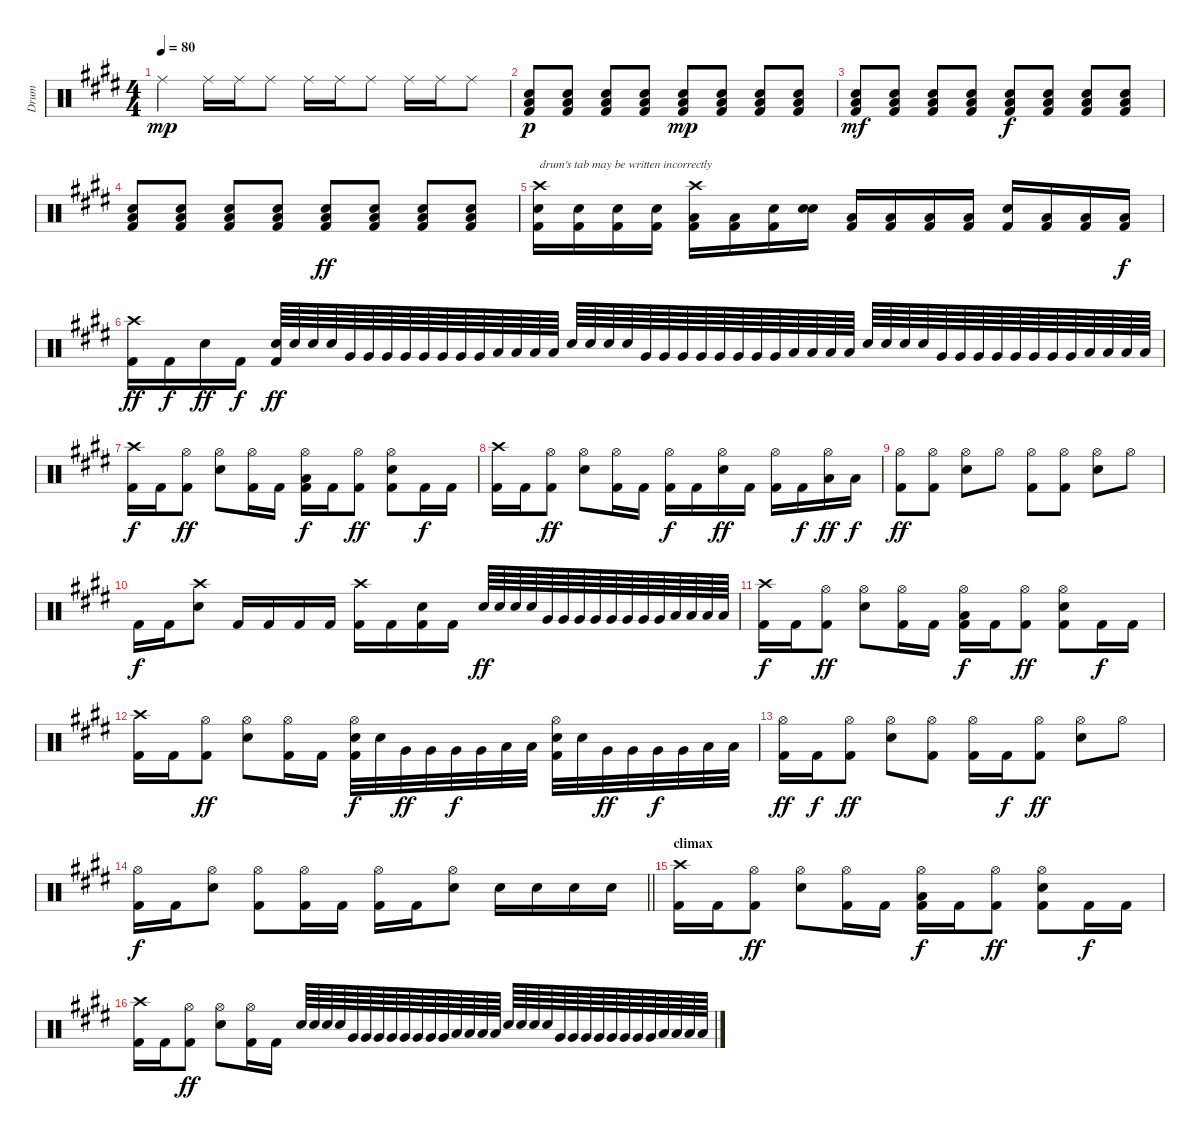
\track ("Drum" "Drum") {instrument percussion}
\staff {score}
\articulation defaults
\ts (4 4)
\tempo 80
\clef neutral
\ks e "Ride (middle)".4{dy mp} "Ride (middle)".16 "Ride (middle)".16 "Ride (middle)".8 "Ride (middle)".16 "Ride (middle)".16 "Ride (middle)".8 "Ride (middle)".16 "Ride (middle)".16 "Ride (middle)".8
|
("Snare (hit) 2" "Low Tom (hit)" "Kick (hit) 2").8{dy p} ("Snare (hit) 2" "Low Tom (hit)" "Kick (hit) 2").8 ("Snare (hit) 2" "Low Tom (hit)" "Kick (hit) 2").8 ("Snare (hit) 2" "Low Tom (hit)" "Kick (hit) 2").8 ("Snare (hit) 2" "Low Tom (hit)" "Kick (hit) 2").8{dy mp} ("Snare (hit) 2" "Low Tom (hit)" "Kick (hit) 2").8 ("Snare (hit) 2" "Low Tom (hit)" "Kick (hit) 2").8 ("Snare (hit) 2" "Low Tom (hit)" "Kick (hit) 2").8 |
("Snare (hit) 2" "Low Tom (hit)" "Kick (hit) 2").8{dy mf} ("Snare (hit) 2" "Low Tom (hit)" "Kick (hit) 2").8 ("Snare (hit) 2" "Low Tom (hit)" "Kick (hit) 2").8 ("Snare (hit) 2" "Low Tom (hit)" "Kick (hit) 2").8 ("Snare (hit) 2" "Low Tom (hit)" "Kick (hit) 2").8{dy f} ("Snare (hit) 2" "Low Tom (hit)" "Kick (hit) 2").8 ("Snare (hit) 2" "Low Tom (hit)" "Kick (hit) 2").8 ("Snare (hit) 2" "Low Tom (hit)" "Kick (hit) 2").8 |
("Snare (hit) 2" "Low Tom (hit)" "Kick (hit) 2").8 ("Snare (hit) 2" "Low Tom (hit)" "Kick (hit) 2").8 ("Snare (hit) 2" "Low Tom (hit)" "Kick (hit) 2").8 ("Snare (hit) 2" "Low Tom (hit)" "Kick (hit) 2").8 ("Snare (hit) 2" "Low Tom (hit)" "Kick (hit) 2").8{dy ff} ("Snare (hit) 2" "Low Tom (hit)" "Kick (hit) 2").8 ("Snare (hit) 2" "Low Tom (hit)" "Kick (hit) 2").8 ("Snare (hit) 2" "Low Tom (hit)" "Kick (hit) 2").8 |
("Crash high (hit)" "Snare (hit) 2" "Kick (hit) 2").16{txt "drum's tab may be written incorrectly"} ("Snare (hit) 2" "Kick (hit) 2").16 ("Snare (hit) 2" "Kick (hit) 2").16 ("Snare (hit) 2" "Kick (hit) 2").16 ("Crash high (hit)" "Low Tom (hit)" "Kick (hit) 2").16 ("Low Tom (hit)" "Kick (hit) 2").16 ("Snare (hit) 2" "Kick (hit) 2").16 ("Snare (hit) 2" "Snare (hit)").16 ("Low Tom (hit)" "Kick (hit) 2").16 ("Low Tom (hit)" "Kick (hit) 2").16 ("Low Tom (hit)" "Kick (hit) 2").16 ("Low Tom (hit)" "Kick (hit) 2").16 ("Snare (hit) 2" "Kick (hit) 2").16 ("Low Tom (hit)" "Kick (hit) 2").16 ("Low Tom (hit)" "Kick (hit) 2").16 ("Low Tom (hit)" "Kick (hit) 2").16{dy f} |
("Crash high (hit)" "Kick (hit) 2").16{dy ff} "Kick (hit) 2".16{dy f} "Snare (hit) 2".16{dy ff} "Kick (hit) 2".16{dy f} ("Snare (hit) 2" "Kick (hit) 2").64{dy ff} "Snare (hit) 2".64 "Snare (hit) 2".64 "Snare (hit) 2".64 "Very Low Tom (hit)".64 "Very Low Tom (hit)".64 "Very Low Tom (hit)".64 "Very Low Tom (hit)".64 "Very Low Tom (hit)".64 "Very Low Tom (hit)".64 "Very Low Tom (hit)".64 "Very Low Tom (hit)".64 "Low Tom (hit)".64 "Low Tom (hit)".64 "Low Tom (hit)".64 "Low Tom (hit)".64 "Snare (hit) 2".64 "Snare (hit) 2".64 "Snare (hit) 2".64 "Snare (hit) 2".64 "Very Low Tom (hit)".64 "Very Low Tom (hit)".64 "Very Low Tom (hit)".64 "Very Low Tom (hit)".64 "Very Low Tom (hit)".64 "Very Low Tom (hit)".64 "Very Low Tom (hit)".64 "Very Low Tom (hit)".64 "Low Tom (hit)".64 "Low Tom (hit)".64 "Low Tom (hit)".64 "Low Tom (hit)".64 "Snare (hit) 2".64 "Snare (hit) 2".64 "Snare (hit) 2".64 "Snare (hit) 2".64 "Very Low Tom (hit)".64 "Very Low Tom (hit)".64 "Very Low Tom (hit)".64 "Very Low Tom (hit)".64 "Very Low Tom (hit)".64 "Very Low Tom (hit)".64 "Very Low Tom (hit)".64 "Very Low Tom (hit)".64 "Low Tom (hit)".64 "Low Tom (hit)".64 "Low Tom (hit)".64 "Low Tom (hit)".64 |
("Crash high (hit)" "Kick (hit) 2").16{dy f} "Kick (hit) 2".16 ("Hi-Hat (open)" "Kick (hit) 2").8{dy ff} ("Hi-Hat (open)" "Snare (hit) 2").8 ("Hi-Hat (open)" "Kick (hit) 2").16 "Kick (hit) 2".16 ("Hi-Hat (open)" "Low Tom (hit)" "Kick (hit) 2").16{dy f} "Kick (hit) 2".16 ("Hi-Hat (open)" "Kick (hit) 2").8{dy ff} ("Hi-Hat (open)" "Snare (hit) 2" "Kick (hit) 2").8 "Kick (hit) 2".16{dy f} "Kick (hit) 2".16 |
("Crash high (hit)" "Kick (hit) 2").16 "Kick (hit) 2".16 ("Hi-Hat (open)" "Kick (hit) 2").8{dy ff} ("Hi-Hat (open)" "Snare (hit) 2").8 ("Hi-Hat (open)" "Kick (hit) 2").16 "Kick (hit) 2".16 ("Hi-Hat (open)" "Kick (hit) 2").16{dy f} "Kick (hit) 2".16 ("Hi-Hat (open)" "Snare (hit) 2").16{dy ff} "Kick (hit) 2".16 ("Hi-Hat (open)" "Kick (hit) 2").16 "Kick (hit) 2".16{dy f} ("Hi-Hat (open)" "Low Tom (hit)").16{dy ff} "Low Tom (hit)".16{dy f} |
("Hi-Hat (open)" "Kick (hit) 2").8{dy ff} ("Hi-Hat (open)" "Kick (hit) 2").8 ("Hi-Hat (open)" "Snare (hit) 2").8 "Hi-Hat (open)".8 ("Hi-Hat (open)" "Kick (hit) 2").8 ("Hi-Hat (open)" "Kick (hit) 2").8 ("Hi-Hat (open)" "Snare (hit) 2").8 "Hi-Hat (open)".8 |
"Kick (hit) 2".16{dy f} "Kick (hit) 2".16 ("Crash high (hit)" "Snare (hit) 2").8 "Kick (hit) 2".16 "Kick (hit) 2".16 "Kick (hit) 2".16 "Kick (hit) 2".16 ("Crash high (hit)" "Kick (hit) 2").16 "Kick (hit) 2".16 ("Snare (hit) 2" "Kick (hit) 2").16 "Kick (hit) 2".16 "Snare (hit) 2".64{dy ff} "Snare (hit) 2".64 "Snare (hit) 2".64 "Snare (hit) 2".64 "Very Low Tom (hit)".64 "Very Low Tom (hit)".64 "Very Low Tom (hit)".64 "Very Low Tom (hit)".64 "Very Low Tom (hit)".64 "Very Low Tom (hit)".64 "Very Low Tom (hit)".64 "Very Low Tom (hit)".64 "Low Tom (hit)".64 "Low Tom (hit)".64 "Low Tom (hit)".64 "Low Tom (hit)".64 |
("Crash high (hit)" "Kick (hit) 2").16{dy f} "Kick (hit) 2".16 ("Hi-Hat (open)" "Kick (hit) 2").8{dy ff} ("Hi-Hat (open)" "Snare (hit) 2").8 ("Hi-Hat (open)" "Kick (hit) 2").16 "Kick (hit) 2".16 ("Hi-Hat (open)" "Low Tom (hit)" "Kick (hit) 2").16{dy f} "Kick (hit) 2".16 ("Hi-Hat (open)" "Kick (hit) 2").8{dy ff} ("Hi-Hat (open)" "Snare (hit) 2" "Kick (hit) 2").8 "Kick (hit) 2".16{dy f} "Kick (hit) 2".16 |
("Crash high (hit)" "Kick (hit) 2").16 "Kick (hit) 2".16 ("Hi-Hat (open)" "Kick (hit) 2").8{dy ff} ("Hi-Hat (open)" "Snare (hit) 2").8 ("Hi-Hat (open)" "Kick (hit) 2").16 "Kick (hit) 2".16 ("Hi-Hat (open)" "Snare (hit) 2" "Kick (hit) 2").32{dy f} "Snare (hit) 2".32 "Very Low Tom (hit)".32{dy ff} "Very Low Tom (hit)".32 "Very Low Tom (hit)".32{dy f} "Very Low Tom (hit)".32 "Low Tom (hit)".32 "Low Tom (hit)".32 ("Hi-Hat (open)" "Snare (hit) 2" "Kick (hit) 2").32 "Snare (hit) 2".32 "Very Low Tom (hit)".32{dy ff} "Very Low Tom (hit)".32 "Very Low Tom (hit)".32{dy f} "Very Low Tom (hit)".32 "Low Tom (hit)".32 "Low Tom (hit)".32 |
("Hi-Hat (open)" "Kick (hit) 2").16{dy ff} "Kick (hit) 2".16{dy f} ("Hi-Hat (open)" "Kick (hit) 2").8{dy ff} ("Hi-Hat (open)" "Snare (hit) 2").8 ("Hi-Hat (open)" "Kick (hit) 2").8 ("Hi-Hat (open)" "Kick (hit) 2").16 "Kick (hit) 2".16{dy f} ("Hi-Hat (open)" "Kick (hit) 2").8{dy ff} ("Hi-Hat (open)" "Snare (hit) 2").8 "Hi-Hat (open)".8 |
\barLineRight lightlight
("Hi-Hat (open)" "Kick (hit) 2").16{dy f} "Kick (hit) 2".16 ("Hi-Hat (open)" "Snare (hit) 2").8 ("Hi-Hat (open)" "Kick (hit) 2").8 ("Hi-Hat (open)" "Kick (hit) 2").16 "Kick (hit) 2".16 ("Hi-Hat (open)" "Kick (hit) 2").16 "Kick (hit) 2".16 ("Hi-Hat (open)" "Snare (hit) 2").8 "Snare (hit) 2".16 "Snare (hit) 2".16 "Snare (hit) 2".16 "Snare (hit) 2".16 |
\section ("" "climax")
("Crash high (hit)" "Kick (hit) 2").16 "Kick (hit) 2".16 ("Hi-Hat (open)" "Kick (hit) 2").8{dy ff} ("Hi-Hat (open)" "Snare (hit) 2").8 ("Hi-Hat (open)" "Kick (hit) 2").16 "Kick (hit) 2".16 ("Hi-Hat (open)" "Low Tom (hit)" "Kick (hit) 2").16{dy f} "Kick (hit) 2".16 ("Hi-Hat (open)" "Kick (hit) 2").8{dy ff} ("Hi-Hat (open)" "Snare (hit) 2" "Kick (hit) 2").8 "Kick (hit) 2".16{dy f} "Kick (hit) 2".16 |
("Crash high (hit)" "Kick (hit) 2").16 "Kick (hit) 2".16 ("Hi-Hat (open)" "Kick (hit) 2").8{dy ff} ("Hi-Hat (open)" "Snare (hit) 2").8 ("Hi-Hat (open)" "Kick (hit) 2").16 "Kick (hit) 2".16 "Snare (hit) 2".64 "Snare (hit) 2".64 "Snare (hit) 2".64 "Snare (hit) 2".64 "Very Low Tom (hit)".64 "Very Low Tom (hit)".64 "Very Low Tom (hit)".64 "Very Low Tom (hit)".64 "Very Low Tom (hit)".64 "Very Low Tom (hit)".64 "Very Low Tom (hit)".64 "Very Low Tom (hit)".64 "Low Tom (hit)".64 "Low Tom (hit)".64 "Low Tom (hit)".64 "Low Tom (hit)".64 "Snare (hit) 2".64 "Snare (hit) 2".64 "Snare (hit) 2".64 "Snare (hit) 2".64 "Very Low Tom (hit)".64 "Very Low Tom (hit)".64 "Very Low Tom (hit)".64 "Very Low Tom (hit)".64 "Very Low Tom (hit)".64 "Very Low Tom (hit)".64 "Very Low Tom (hit)".64 "Very Low Tom (hit)".64 "Low Tom (hit)".64 "Low Tom (hit)".64 "Low Tom (hit)".64 "Low Tom (hit)".64
